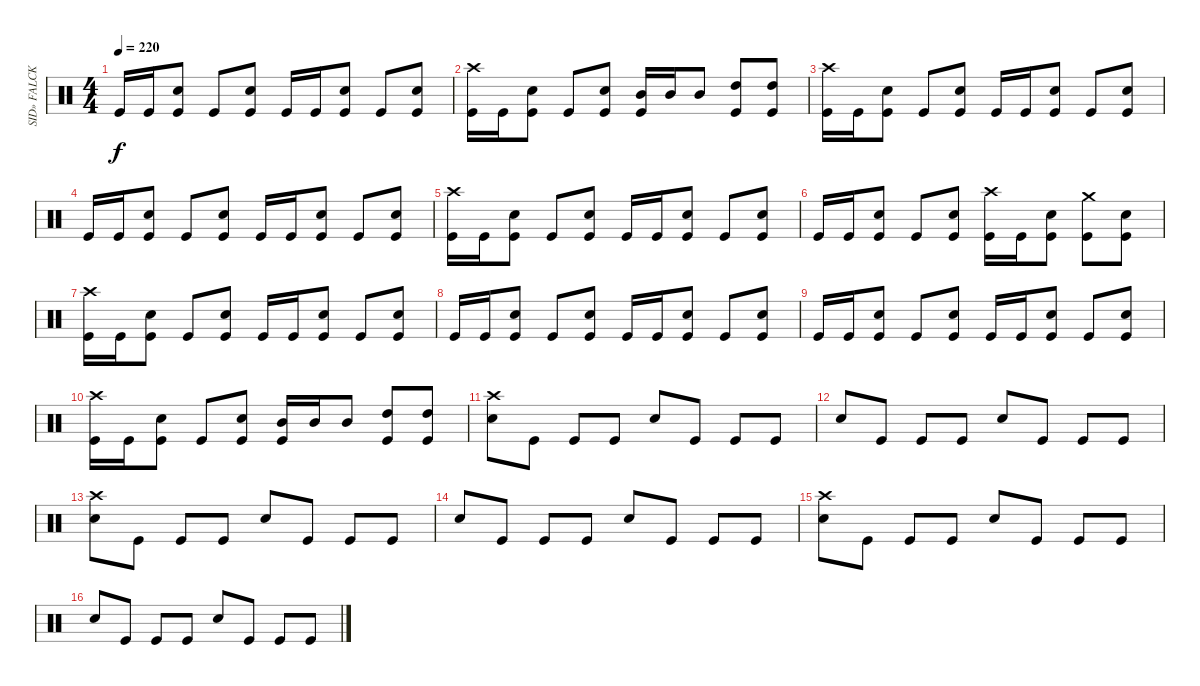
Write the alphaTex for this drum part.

\track ("SID» FALCK- Drums " "SID» FALCK") {instrument percussion}
\staff {score}
\articulation defaults
\ts (4 4)
\tempo 220
\clef neutral
\ks c "Kick (hit)".16{dy f} "Kick (hit)".16
("Electric Snare (hit)" "Kick (hit)").8 "Kick (hit)".8 ("Electric Snare (hit)" "Kick (hit)").8 "Kick (hit)".16 "Kick (hit)".16 ("Electric Snare (hit)" "Kick (hit)").8 "Kick (hit)".8 ("Electric Snare (hit)" "Kick (hit)").8 |
("Crash high (hit)" "Kick (hit)").16 "Kick (hit)".16 ("Electric Snare (hit)" "Kick (hit)").8 "Kick (hit)".8 ("Electric Snare (hit)" "Kick (hit)").8 ("Mid Tom (hit)" "Kick (hit)").16 "Mid Tom (hit)".16 "Mid Tom (hit)".8 ("High Tom (hit)" "Kick (hit)").8 ("High Tom (hit)" "Kick (hit)").8 |
("Crash high (hit)" "Kick (hit)").16 "Kick (hit)".16 ("Electric Snare (hit)" "Kick (hit)").8 "Kick (hit)".8 ("Electric Snare (hit)" "Kick (hit)").8 "Kick (hit)".16 "Kick (hit)".16 ("Electric Snare (hit)" "Kick (hit)").8 "Kick (hit)".8 ("Electric Snare (hit)" "Kick (hit)").8 |
"Kick (hit)".16 "Kick (hit)".16 ("Electric Snare (hit)" "Kick (hit)").8 "Kick (hit)".8 ("Electric Snare (hit)" "Kick (hit)").8 "Kick (hit)".16 "Kick (hit)".16 ("Electric Snare (hit)" "Kick (hit)").8 "Kick (hit)".8 ("Electric Snare (hit)" "Kick (hit)").8 |
("Crash high (hit)" "Kick (hit)").16 "Kick (hit)".16 ("Electric Snare (hit)" "Kick (hit)").8 "Kick (hit)".8 ("Electric Snare (hit)" "Kick (hit)").8 "Kick (hit)".16 "Kick (hit)".16 ("Electric Snare (hit)" "Kick (hit)").8 "Kick (hit)".8 ("Electric Snare (hit)" "Kick (hit)").8 |
"Kick (hit)".16 "Kick (hit)".16 ("Electric Snare (hit)" "Kick (hit)").8 "Kick (hit)".8 ("Electric Snare (hit)" "Kick (hit)").8 ("Crash high (hit)" "Kick (hit)").16 "Kick (hit)".16 ("Electric Snare (hit)" "Kick (hit)").8 ("Crash medium (hit)" "Kick (hit)").8 ("Electric Snare (hit)" "Kick (hit)").8 |
("Crash high (hit)" "Kick (hit)").16 "Kick (hit)".16 ("Electric Snare (hit)" "Kick (hit)").8 "Kick (hit)".8 ("Electric Snare (hit)" "Kick (hit)").8 "Kick (hit)".16 "Kick (hit)".16 ("Electric Snare (hit)" "Kick (hit)").8 "Kick (hit)".8 ("Electric Snare (hit)" "Kick (hit)").8 |
"Kick (hit)".16 "Kick (hit)".16 ("Electric Snare (hit)" "Kick (hit)").8 "Kick (hit)".8 ("Electric Snare (hit)" "Kick (hit)").8 "Kick (hit)".16 "Kick (hit)".16 ("Electric Snare (hit)" "Kick (hit)").8 "Kick (hit)".8 ("Electric Snare (hit)" "Kick (hit)").8 |
"Kick (hit)".16 "Kick (hit)".16 ("Electric Snare (hit)" "Kick (hit)").8 "Kick (hit)".8 ("Electric Snare (hit)" "Kick (hit)").8 "Kick (hit)".16 "Kick (hit)".16 ("Electric Snare (hit)" "Kick (hit)").8 "Kick (hit)".8 ("Electric Snare (hit)" "Kick (hit)").8 |
("Crash high (hit)" "Kick (hit)").16 "Kick (hit)".16 ("Electric Snare (hit)" "Kick (hit)").8 "Kick (hit)".8 ("Electric Snare (hit)" "Kick (hit)").8 ("Mid Tom (hit)" "Kick (hit)").16 "Mid Tom (hit)".16 "Mid Tom (hit)".8 ("High Tom (hit)" "Kick (hit)").8 ("High Tom (hit)" "Kick (hit)").8 |
("Crash high (hit)" "Electric Snare (hit)").8 "Kick (hit)".8 "Kick (hit)".8 "Kick (hit)".8 "Electric Snare (hit)".8 "Kick (hit)".8 "Kick (hit)".8 "Kick (hit)".8 |
"Electric Snare (hit)".8 "Kick (hit)".8 "Kick (hit)".8 "Kick (hit)".8 "Electric Snare (hit)".8 "Kick (hit)".8 "Kick (hit)".8 "Kick (hit)".8 |
("Crash high (hit)" "Electric Snare (hit)").8 "Kick (hit)".8 "Kick (hit)".8 "Kick (hit)".8 "Electric Snare (hit)".8 "Kick (hit)".8 "Kick (hit)".8 "Kick (hit)".8 |
"Electric Snare (hit)".8 "Kick (hit)".8 "Kick (hit)".8 "Kick (hit)".8 "Electric Snare (hit)".8 "Kick (hit)".8 "Kick (hit)".8 "Kick (hit)".8 |
("Crash high (hit)" "Electric Snare (hit)").8 "Kick (hit)".8 "Kick (hit)".8 "Kick (hit)".8 "Electric Snare (hit)".8 "Kick (hit)".8 "Kick (hit)".8 "Kick (hit)".8 |
"Electric Snare (hit)".8 "Kick (hit)".8 "Kick (hit)".8 "Kick (hit)".8 "Electric Snare (hit)".8 "Kick (hit)".8 "Kick (hit)".8 "Kick (hit)".8
